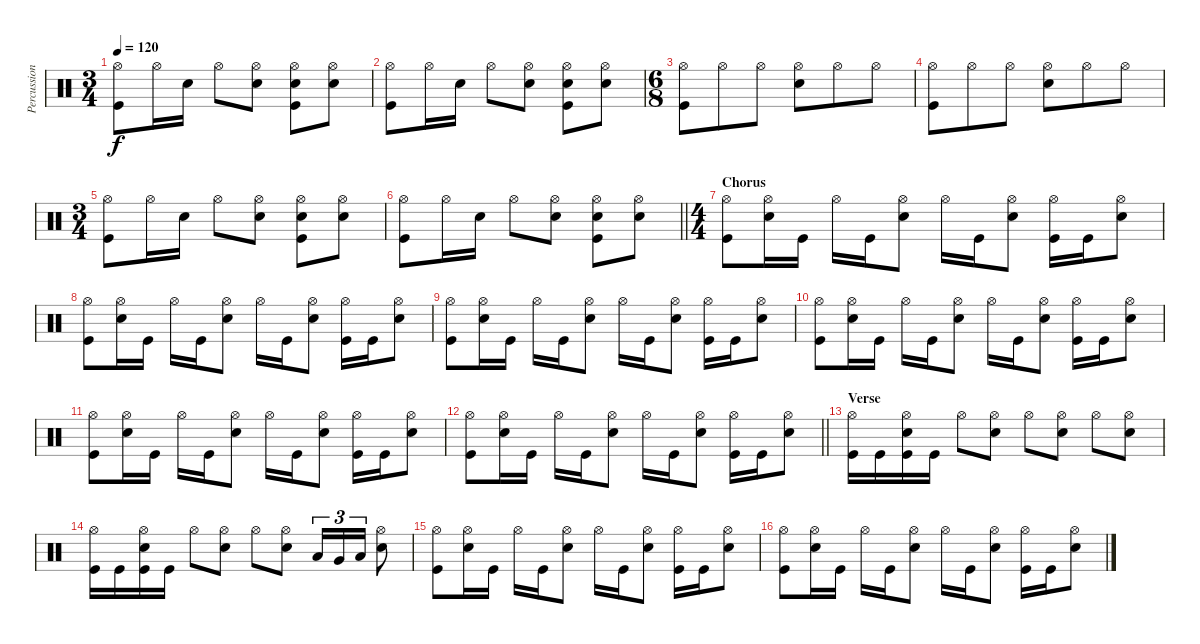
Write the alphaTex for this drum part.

\track ("Percussion" "Percussion") {instrument percussion}
\staff {score}
\articulation defaults
\ts (3 4)
\tempo 120
\clef neutral
\ks c
("Hi-Hat (open)" "Kick (hit)").8{dy f} "Hi-Hat (open)".16 "Snare (hit) 2".16 "Hi-Hat (open)".8 ("Hi-Hat (open)" "Snare (hit) 2").8 ("Hi-Hat (open)" "Snare (hit) 2" "Kick (hit)").8 ("Hi-Hat (open)" "Snare (hit) 2").8 |
("Hi-Hat (open)" "Kick (hit)").8 "Hi-Hat (open)".16 "Snare (hit) 2".16 "Hi-Hat (open)".8 ("Hi-Hat (open)" "Snare (hit) 2").8 ("Hi-Hat (open)" "Snare (hit) 2" "Kick (hit)").8 ("Hi-Hat (open)" "Snare (hit) 2").8 |
\ts (6 8)
("Hi-Hat (open)" "Kick (hit)").8 "Hi-Hat (open)".8 "Hi-Hat (open)".8 ("Hi-Hat (open)" "Snare (hit) 2").8 "Hi-Hat (open)".8 "Hi-Hat (open)".8 |
("Hi-Hat (open)" "Kick (hit)").8 "Hi-Hat (open)".8 "Hi-Hat (open)".8 ("Hi-Hat (open)" "Snare (hit) 2").8 "Hi-Hat (open)".8 "Hi-Hat (open)".8 |
\ts (3 4)
("Hi-Hat (open)" "Kick (hit)").8 "Hi-Hat (open)".16 "Snare (hit) 2".16 "Hi-Hat (open)".8 ("Hi-Hat (open)" "Snare (hit) 2").8 ("Hi-Hat (open)" "Snare (hit) 2" "Kick (hit)").8 ("Hi-Hat (open)" "Snare (hit) 2").8 |
\barLineRight lightlight
("Hi-Hat (open)" "Kick (hit)").8 "Hi-Hat (open)".16 "Snare (hit) 2".16 "Hi-Hat (open)".8 ("Hi-Hat (open)" "Snare (hit) 2").8 ("Hi-Hat (open)" "Snare (hit) 2" "Kick (hit)").8 ("Hi-Hat (open)" "Snare (hit) 2").8 |
\ts (4 4)
\section ("" "Chorus")
("Hi-Hat (open)" "Kick (hit)").8 ("Hi-Hat (open)" "Snare (hit) 2").16 "Kick (hit)".16 "Hi-Hat (open)".16 "Kick (hit)".16 ("Hi-Hat (open)" "Snare (hit) 2").8 "Hi-Hat (open)".16 "Kick (hit)".16 ("Hi-Hat (open)" "Snare (hit) 2").8 ("Hi-Hat (open)" "Kick (hit)").16 "Kick (hit)".16 ("Hi-Hat (open)" "Snare (hit) 2").8 |
("Hi-Hat (open)" "Kick (hit)").8 ("Hi-Hat (open)" "Snare (hit) 2").16 "Kick (hit)".16 "Hi-Hat (open)".16 "Kick (hit)".16 ("Hi-Hat (open)" "Snare (hit) 2").8 "Hi-Hat (open)".16 "Kick (hit)".16 ("Hi-Hat (open)" "Snare (hit) 2").8 ("Hi-Hat (open)" "Kick (hit)").16 "Kick (hit)".16 ("Hi-Hat (open)" "Snare (hit) 2").8 |
("Hi-Hat (open)" "Kick (hit)").8 ("Hi-Hat (open)" "Snare (hit) 2").16 "Kick (hit)".16 "Hi-Hat (open)".16 "Kick (hit)".16 ("Hi-Hat (open)" "Snare (hit) 2").8 "Hi-Hat (open)".16 "Kick (hit)".16 ("Hi-Hat (open)" "Snare (hit) 2").8 ("Hi-Hat (open)" "Kick (hit)").16 "Kick (hit)".16 ("Hi-Hat (open)" "Snare (hit) 2").8 |
("Hi-Hat (open)" "Kick (hit)").8 ("Hi-Hat (open)" "Snare (hit) 2").16 "Kick (hit)".16 "Hi-Hat (open)".16 "Kick (hit)".16 ("Hi-Hat (open)" "Snare (hit) 2").8 "Hi-Hat (open)".16 "Kick (hit)".16 ("Hi-Hat (open)" "Snare (hit) 2").8 ("Hi-Hat (open)" "Kick (hit)").16 "Kick (hit)".16 ("Hi-Hat (open)" "Snare (hit) 2").8 |
("Hi-Hat (open)" "Kick (hit)").8 ("Hi-Hat (open)" "Snare (hit) 2").16 "Kick (hit)".16 "Hi-Hat (open)".16 "Kick (hit)".16 ("Hi-Hat (open)" "Snare (hit) 2").8 "Hi-Hat (open)".16 "Kick (hit)".16 ("Hi-Hat (open)" "Snare (hit) 2").8 ("Hi-Hat (open)" "Kick (hit)").16 "Kick (hit)".16 ("Hi-Hat (open)" "Snare (hit) 2").8 |
\barLineRight lightlight
("Hi-Hat (open)" "Kick (hit)").8 ("Hi-Hat (open)" "Snare (hit) 2").16 "Kick (hit)".16 "Hi-Hat (open)".16 "Kick (hit)".16 ("Hi-Hat (open)" "Snare (hit) 2").8 "Hi-Hat (open)".16 "Kick (hit)".16 ("Hi-Hat (open)" "Snare (hit) 2").8 ("Hi-Hat (open)" "Kick (hit)").16 "Kick (hit)".16 ("Hi-Hat (open)" "Snare (hit) 2").8 |
\section ("" "Verse")
("Hi-Hat (open)" "Kick (hit)").16 "Kick (hit)".16 ("Hi-Hat (open)" "Snare (hit) 2" "Kick (hit)").16 "Kick (hit)".16 "Hi-Hat (open)".8 ("Hi-Hat (open)" "Snare (hit) 2").8 "Hi-Hat (open)".8 ("Hi-Hat (open)" "Snare (hit) 2").8 "Hi-Hat (open)".8 ("Hi-Hat (open)" "Snare (hit) 2").8 |
("Hi-Hat (open)" "Kick (hit)").16 "Kick (hit)".16 ("Hi-Hat (open)" "Snare (hit) 2" "Kick (hit)").16 "Kick (hit)".16 "Hi-Hat (open)".8 ("Hi-Hat (open)" "Snare (hit) 2").8 "Hi-Hat (open)".8 ("Hi-Hat (open)" "Snare (hit) 2").8 "Low Tom (hit)".16{tu (3 2)} "Very Low Tom (hit)".16{tu (3 2)} "Low Floor Tom (hit)".16{tu (3 2)} ("Hi-Hat (open)" "Snare (hit) 2").8 |
("Hi-Hat (open)" "Kick (hit)").8 ("Hi-Hat (open)" "Snare (hit) 2").16 "Kick (hit)".16 "Hi-Hat (open)".16 "Kick (hit)".16 ("Hi-Hat (open)" "Snare (hit) 2").8 "Hi-Hat (open)".16 "Kick (hit)".16 ("Hi-Hat (open)" "Snare (hit) 2").8 ("Hi-Hat (open)" "Kick (hit)").16 "Kick (hit)".16 ("Hi-Hat (open)" "Snare (hit) 2").8 |
("Hi-Hat (open)" "Kick (hit)").8 ("Hi-Hat (open)" "Snare (hit) 2").16 "Kick (hit)".16 "Hi-Hat (open)".16 "Kick (hit)".16 ("Hi-Hat (open)" "Snare (hit) 2").8 "Hi-Hat (open)".16 "Kick (hit)".16 ("Hi-Hat (open)" "Snare (hit) 2").8 ("Hi-Hat (open)" "Kick (hit)").16 "Kick (hit)".16 ("Hi-Hat (open)" "Snare (hit) 2").8
